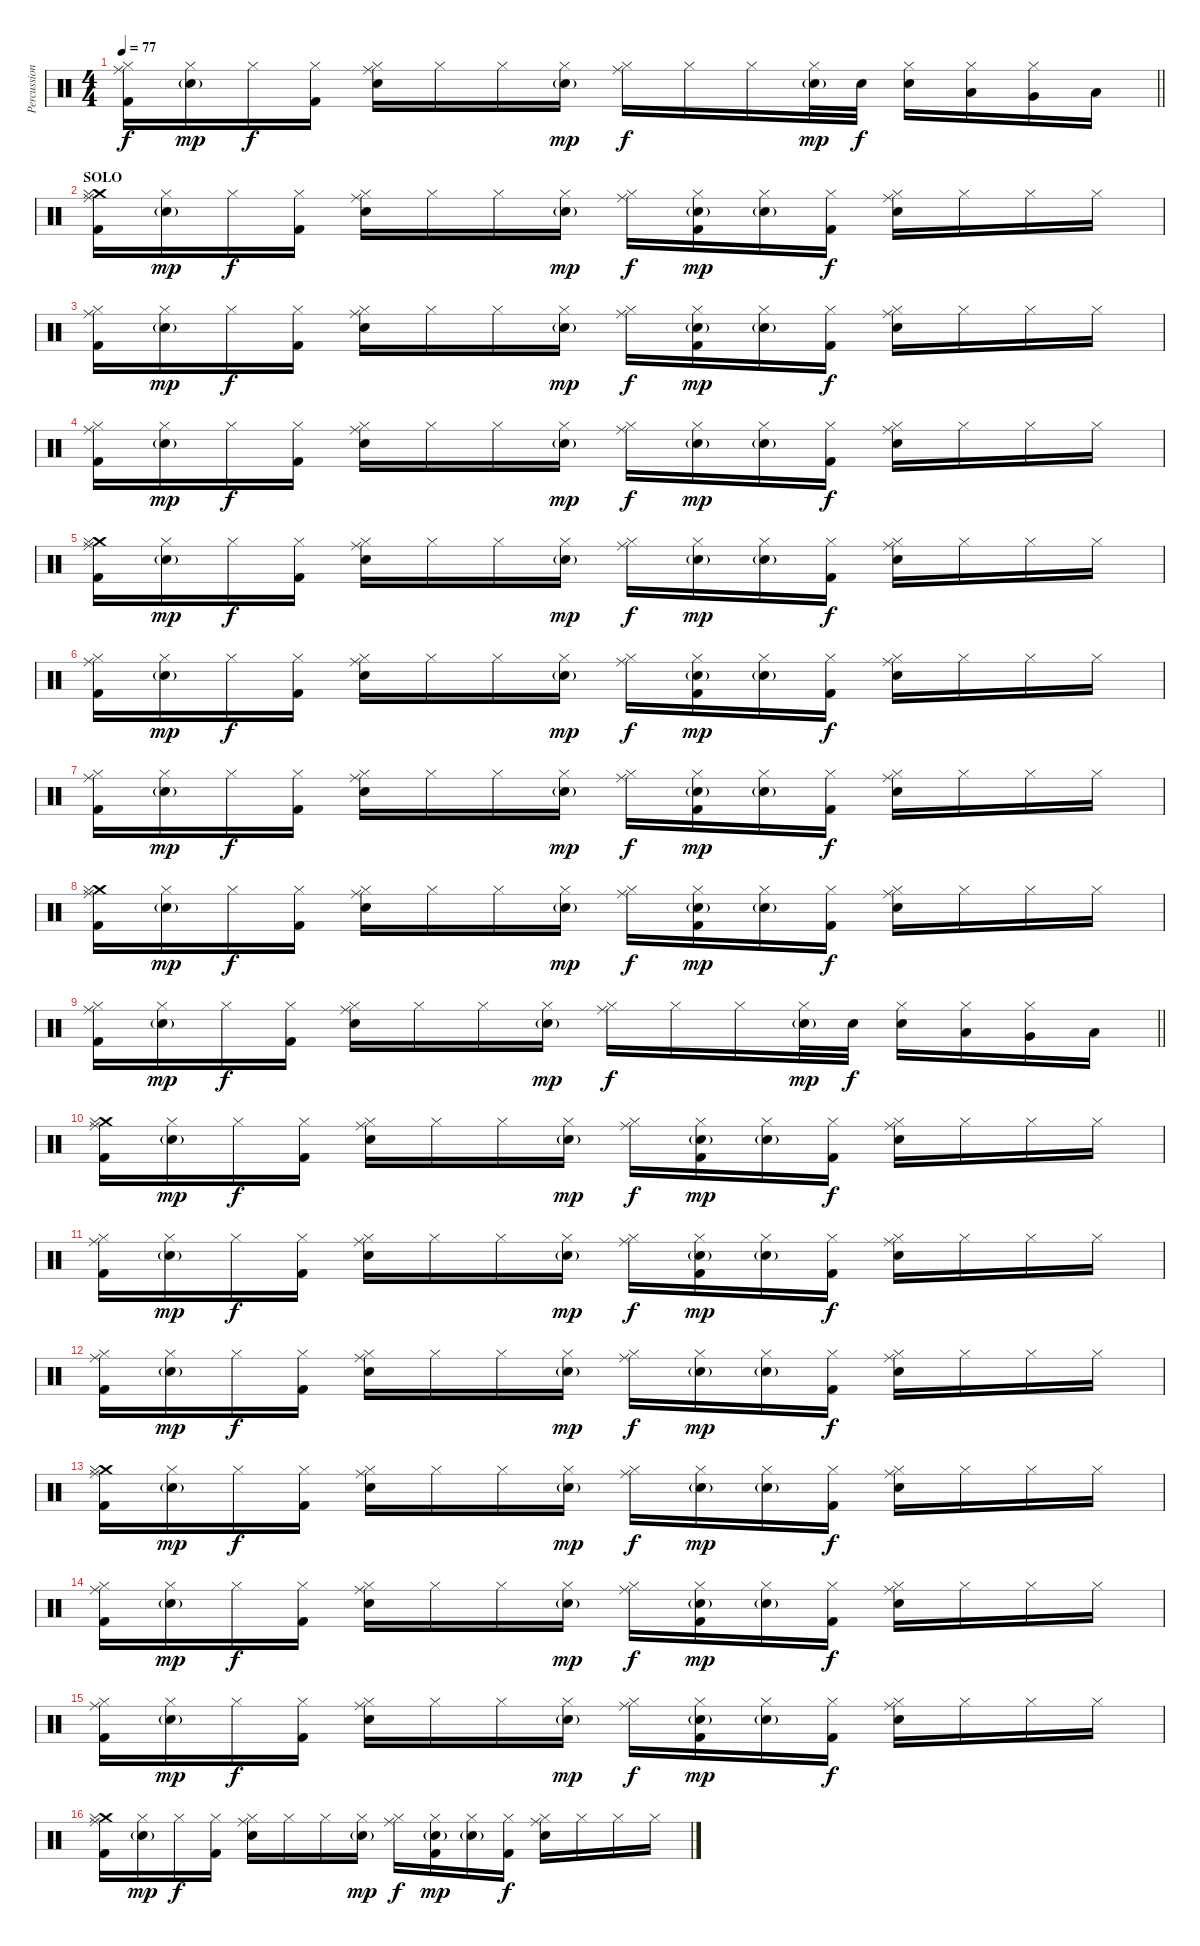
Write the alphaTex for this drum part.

\track ("Percussion" "Percussion") {instrument percussion}
\staff {score}
\articulation defaults
\ts (4 4)
\tempo 77
\clef neutral
\barLineRight lightlight
\ks c
("Hi-Hat (closed)" "Ride (middle)" "Kick (hit) 2").16{dy f} ("Hi-Hat (closed)" "Electric Snare (hit)"{g}).16{dy mp} "Hi-Hat (closed)".16{dy f} ("Hi-Hat (closed)" "Kick (hit) 2").16 ("Hi-Hat (closed)" "Ride (middle)" "Electric Snare (hit)").16 "Hi-Hat (closed)".16 "Hi-Hat (closed)".16 ("Hi-Hat (closed)" "Electric Snare (hit)"{g}).16{dy mp} ("Hi-Hat (closed)" "Ride (middle)").16{dy f} "Hi-Hat (closed)".16 "Hi-Hat (closed)".16 ("Hi-Hat (closed)" "Electric Snare (hit)"{g}).32{dy mp} "Electric Snare (hit)".32{dy f} ("Hi-Hat (closed)" "Electric Snare (hit)").16 ("Hi-Hat (closed)" "Low Tom (hit)").16 ("Hi-Hat (closed)" "Very Low Tom (hit)").16 "Low Floor Tom (hit)".16 |
\section ("" "SOLO")
("Crash medium (hit)" "Hi-Hat (closed)" "Ride (middle)" "Kick (hit) 2").16 ("Hi-Hat (closed)" "Electric Snare (hit)"{g}).16{dy mp} "Hi-Hat (closed)".16{dy f} ("Hi-Hat (closed)" "Kick (hit) 2").16 ("Hi-Hat (closed)" "Ride (middle)" "Electric Snare (hit)").16 "Hi-Hat (closed)".16 "Hi-Hat (closed)".16 ("Hi-Hat (closed)" "Electric Snare (hit)"{g}).16{dy mp} ("Hi-Hat (closed)" "Ride (middle)").16{dy f} ("Hi-Hat (closed)" "Electric Snare (hit)"{g} "Kick (hit) 2").16{dy mp} ("Hi-Hat (closed)" "Electric Snare (hit)"{g}).16 ("Hi-Hat (closed)" "Kick (hit) 2").16{dy f} ("Hi-Hat (closed)" "Ride (middle)" "Electric Snare (hit)").16 "Hi-Hat (closed)".16 "Hi-Hat (closed)".16 "Hi-Hat (closed)".16 |
("Hi-Hat (closed)" "Ride (middle)" "Kick (hit) 2").16 ("Hi-Hat (closed)" "Electric Snare (hit)"{g}).16{dy mp} "Hi-Hat (closed)".16{dy f} ("Hi-Hat (closed)" "Kick (hit) 2").16 ("Hi-Hat (closed)" "Ride (middle)" "Electric Snare (hit)").16 "Hi-Hat (closed)".16 "Hi-Hat (closed)".16 ("Hi-Hat (closed)" "Electric Snare (hit)"{g}).16{dy mp} ("Hi-Hat (closed)" "Ride (middle)").16{dy f} ("Hi-Hat (closed)" "Electric Snare (hit)"{g} "Kick (hit) 2").16{dy mp} ("Hi-Hat (closed)" "Electric Snare (hit)"{g}).16 ("Hi-Hat (closed)" "Kick (hit) 2").16{dy f} ("Hi-Hat (closed)" "Ride (middle)" "Electric Snare (hit)").16 "Hi-Hat (closed)".16 "Hi-Hat (closed)".16 "Hi-Hat (closed)".16 |
("Hi-Hat (closed)" "Ride (middle)" "Kick (hit) 2").16 ("Hi-Hat (closed)" "Electric Snare (hit)"{g}).16{dy mp} "Hi-Hat (closed)".16{dy f} ("Hi-Hat (closed)" "Kick (hit) 2").16 ("Hi-Hat (closed)" "Ride (middle)" "Electric Snare (hit)").16 "Hi-Hat (closed)".16 "Hi-Hat (closed)".16 ("Hi-Hat (closed)" "Electric Snare (hit)"{g}).16{dy mp} ("Hi-Hat (closed)" "Ride (middle)").16{dy f} ("Hi-Hat (closed)" "Electric Snare (hit)"{g}).16{dy mp} ("Hi-Hat (closed)" "Electric Snare (hit)"{g}).16 ("Hi-Hat (closed)" "Kick (hit) 2").16{dy f} ("Hi-Hat (closed)" "Ride (middle)" "Electric Snare (hit)").16 "Hi-Hat (closed)".16 "Hi-Hat (closed)".16 "Hi-Hat (closed)".16 |
("Crash medium (hit)" "Hi-Hat (closed)" "Ride (middle)" "Kick (hit) 2").16 ("Hi-Hat (closed)" "Electric Snare (hit)"{g}).16{dy mp} "Hi-Hat (closed)".16{dy f} ("Hi-Hat (closed)" "Kick (hit) 2").16 ("Hi-Hat (closed)" "Ride (middle)" "Electric Snare (hit)").16 "Hi-Hat (closed)".16 "Hi-Hat (closed)".16 ("Hi-Hat (closed)" "Electric Snare (hit)"{g}).16{dy mp} ("Hi-Hat (closed)" "Ride (middle)").16{dy f} ("Hi-Hat (closed)" "Electric Snare (hit)"{g}).16{dy mp} ("Hi-Hat (closed)" "Electric Snare (hit)"{g}).16 ("Hi-Hat (closed)" "Kick (hit) 2").16{dy f} ("Hi-Hat (closed)" "Ride (middle)" "Electric Snare (hit)").16 "Hi-Hat (closed)".16 "Hi-Hat (closed)".16 "Hi-Hat (closed)".16 |
("Hi-Hat (closed)" "Ride (middle)" "Kick (hit) 2").16 ("Hi-Hat (closed)" "Electric Snare (hit)"{g}).16{dy mp} "Hi-Hat (closed)".16{dy f} ("Hi-Hat (closed)" "Kick (hit) 2").16 ("Hi-Hat (closed)" "Ride (middle)" "Electric Snare (hit)").16 "Hi-Hat (closed)".16 "Hi-Hat (closed)".16 ("Hi-Hat (closed)" "Electric Snare (hit)"{g}).16{dy mp} ("Hi-Hat (closed)" "Ride (middle)").16{dy f} ("Hi-Hat (closed)" "Electric Snare (hit)"{g} "Kick (hit) 2").16{dy mp} ("Hi-Hat (closed)" "Electric Snare (hit)"{g}).16 ("Hi-Hat (closed)" "Kick (hit) 2").16{dy f} ("Hi-Hat (closed)" "Ride (middle)" "Electric Snare (hit)").16 "Hi-Hat (closed)".16 "Hi-Hat (closed)".16 "Hi-Hat (closed)".16 |
("Hi-Hat (closed)" "Ride (middle)" "Kick (hit) 2").16 ("Hi-Hat (closed)" "Electric Snare (hit)"{g}).16{dy mp} "Hi-Hat (closed)".16{dy f} ("Hi-Hat (closed)" "Kick (hit) 2").16 ("Hi-Hat (closed)" "Ride (middle)" "Electric Snare (hit)").16 "Hi-Hat (closed)".16 "Hi-Hat (closed)".16 ("Hi-Hat (closed)" "Electric Snare (hit)"{g}).16{dy mp} ("Hi-Hat (closed)" "Ride (middle)").16{dy f} ("Hi-Hat (closed)" "Electric Snare (hit)"{g} "Kick (hit) 2").16{dy mp} ("Hi-Hat (closed)" "Electric Snare (hit)"{g}).16 ("Hi-Hat (closed)" "Kick (hit) 2").16{dy f} ("Hi-Hat (closed)" "Ride (middle)" "Electric Snare (hit)").16 "Hi-Hat (closed)".16 "Hi-Hat (closed)".16 "Hi-Hat (closed)".16 |
("Crash medium (hit)" "Hi-Hat (closed)" "Ride (middle)" "Kick (hit) 2").16 ("Hi-Hat (closed)" "Electric Snare (hit)"{g}).16{dy mp} "Hi-Hat (closed)".16{dy f} ("Hi-Hat (closed)" "Kick (hit) 2").16 ("Hi-Hat (closed)" "Ride (middle)" "Electric Snare (hit)").16 "Hi-Hat (closed)".16 "Hi-Hat (closed)".16 ("Hi-Hat (closed)" "Electric Snare (hit)"{g}).16{dy mp} ("Hi-Hat (closed)" "Ride (middle)").16{dy f} ("Hi-Hat (closed)" "Electric Snare (hit)"{g} "Kick (hit) 2").16{dy mp} ("Hi-Hat (closed)" "Electric Snare (hit)"{g}).16 ("Hi-Hat (closed)" "Kick (hit) 2").16{dy f} ("Hi-Hat (closed)" "Ride (middle)" "Electric Snare (hit)").16 "Hi-Hat (closed)".16 "Hi-Hat (closed)".16 "Hi-Hat (closed)".16 |
\barLineRight lightlight
("Hi-Hat (closed)" "Ride (middle)" "Kick (hit) 2").16 ("Hi-Hat (closed)" "Electric Snare (hit)"{g}).16{dy mp} "Hi-Hat (closed)".16{dy f} ("Hi-Hat (closed)" "Kick (hit) 2").16 ("Hi-Hat (closed)" "Ride (middle)" "Electric Snare (hit)").16 "Hi-Hat (closed)".16 "Hi-Hat (closed)".16 ("Hi-Hat (closed)" "Electric Snare (hit)"{g}).16{dy mp} ("Hi-Hat (closed)" "Ride (middle)").16{dy f} "Hi-Hat (closed)".16 "Hi-Hat (closed)".16 ("Hi-Hat (closed)" "Electric Snare (hit)"{g}).32{dy mp} "Electric Snare (hit)".32{dy f} ("Hi-Hat (closed)" "Electric Snare (hit)").16 ("Hi-Hat (closed)" "Low Tom (hit)").16 ("Hi-Hat (closed)" "Very Low Tom (hit)").16 "Low Floor Tom (hit)".16 |
("Crash medium (hit)" "Hi-Hat (closed)" "Ride (middle)" "Kick (hit) 2").16 ("Hi-Hat (closed)" "Electric Snare (hit)"{g}).16{dy mp} "Hi-Hat (closed)".16{dy f} ("Hi-Hat (closed)" "Kick (hit) 2").16 ("Hi-Hat (closed)" "Ride (middle)" "Electric Snare (hit)").16 "Hi-Hat (closed)".16 "Hi-Hat (closed)".16 ("Hi-Hat (closed)" "Electric Snare (hit)"{g}).16{dy mp} ("Hi-Hat (closed)" "Ride (middle)").16{dy f} ("Hi-Hat (closed)" "Electric Snare (hit)"{g} "Kick (hit) 2").16{dy mp} ("Hi-Hat (closed)" "Electric Snare (hit)"{g}).16 ("Hi-Hat (closed)" "Kick (hit) 2").16{dy f} ("Hi-Hat (closed)" "Ride (middle)" "Electric Snare (hit)").16 "Hi-Hat (closed)".16 "Hi-Hat (closed)".16 "Hi-Hat (closed)".16 |
("Hi-Hat (closed)" "Ride (middle)" "Kick (hit) 2").16 ("Hi-Hat (closed)" "Electric Snare (hit)"{g}).16{dy mp} "Hi-Hat (closed)".16{dy f} ("Hi-Hat (closed)" "Kick (hit) 2").16 ("Hi-Hat (closed)" "Ride (middle)" "Electric Snare (hit)").16 "Hi-Hat (closed)".16 "Hi-Hat (closed)".16 ("Hi-Hat (closed)" "Electric Snare (hit)"{g}).16{dy mp} ("Hi-Hat (closed)" "Ride (middle)").16{dy f} ("Hi-Hat (closed)" "Electric Snare (hit)"{g} "Kick (hit) 2").16{dy mp} ("Hi-Hat (closed)" "Electric Snare (hit)"{g}).16 ("Hi-Hat (closed)" "Kick (hit) 2").16{dy f} ("Hi-Hat (closed)" "Ride (middle)" "Electric Snare (hit)").16 "Hi-Hat (closed)".16 "Hi-Hat (closed)".16 "Hi-Hat (closed)".16 |
("Hi-Hat (closed)" "Ride (middle)" "Kick (hit) 2").16 ("Hi-Hat (closed)" "Electric Snare (hit)"{g}).16{dy mp} "Hi-Hat (closed)".16{dy f} ("Hi-Hat (closed)" "Kick (hit) 2").16 ("Hi-Hat (closed)" "Ride (middle)" "Electric Snare (hit)").16 "Hi-Hat (closed)".16 "Hi-Hat (closed)".16 ("Hi-Hat (closed)" "Electric Snare (hit)"{g}).16{dy mp} ("Hi-Hat (closed)" "Ride (middle)").16{dy f} ("Hi-Hat (closed)" "Electric Snare (hit)"{g}).16{dy mp} ("Hi-Hat (closed)" "Electric Snare (hit)"{g}).16 ("Hi-Hat (closed)" "Kick (hit) 2").16{dy f} ("Hi-Hat (closed)" "Ride (middle)" "Electric Snare (hit)").16 "Hi-Hat (closed)".16 "Hi-Hat (closed)".16 "Hi-Hat (closed)".16 |
("Crash medium (hit)" "Hi-Hat (closed)" "Ride (middle)" "Kick (hit) 2").16 ("Hi-Hat (closed)" "Electric Snare (hit)"{g}).16{dy mp} "Hi-Hat (closed)".16{dy f} ("Hi-Hat (closed)" "Kick (hit) 2").16 ("Hi-Hat (closed)" "Ride (middle)" "Electric Snare (hit)").16 "Hi-Hat (closed)".16 "Hi-Hat (closed)".16 ("Hi-Hat (closed)" "Electric Snare (hit)"{g}).16{dy mp} ("Hi-Hat (closed)" "Ride (middle)").16{dy f} ("Hi-Hat (closed)" "Electric Snare (hit)"{g}).16{dy mp} ("Hi-Hat (closed)" "Electric Snare (hit)"{g}).16 ("Hi-Hat (closed)" "Kick (hit) 2").16{dy f} ("Hi-Hat (closed)" "Ride (middle)" "Electric Snare (hit)").16 "Hi-Hat (closed)".16 "Hi-Hat (closed)".16 "Hi-Hat (closed)".16 |
("Hi-Hat (closed)" "Ride (middle)" "Kick (hit) 2").16 ("Hi-Hat (closed)" "Electric Snare (hit)"{g}).16{dy mp} "Hi-Hat (closed)".16{dy f} ("Hi-Hat (closed)" "Kick (hit) 2").16 ("Hi-Hat (closed)" "Ride (middle)" "Electric Snare (hit)").16 "Hi-Hat (closed)".16 "Hi-Hat (closed)".16 ("Hi-Hat (closed)" "Electric Snare (hit)"{g}).16{dy mp} ("Hi-Hat (closed)" "Ride (middle)").16{dy f} ("Hi-Hat (closed)" "Electric Snare (hit)"{g} "Kick (hit) 2").16{dy mp} ("Hi-Hat (closed)" "Electric Snare (hit)"{g}).16 ("Hi-Hat (closed)" "Kick (hit) 2").16{dy f} ("Hi-Hat (closed)" "Ride (middle)" "Electric Snare (hit)").16 "Hi-Hat (closed)".16 "Hi-Hat (closed)".16 "Hi-Hat (closed)".16 |
("Hi-Hat (closed)" "Ride (middle)" "Kick (hit) 2").16 ("Hi-Hat (closed)" "Electric Snare (hit)"{g}).16{dy mp} "Hi-Hat (closed)".16{dy f} ("Hi-Hat (closed)" "Kick (hit) 2").16 ("Hi-Hat (closed)" "Ride (middle)" "Electric Snare (hit)").16 "Hi-Hat (closed)".16 "Hi-Hat (closed)".16 ("Hi-Hat (closed)" "Electric Snare (hit)"{g}).16{dy mp} ("Hi-Hat (closed)" "Ride (middle)").16{dy f} ("Hi-Hat (closed)" "Electric Snare (hit)"{g} "Kick (hit) 2").16{dy mp} ("Hi-Hat (closed)" "Electric Snare (hit)"{g}).16 ("Hi-Hat (closed)" "Kick (hit) 2").16{dy f} ("Hi-Hat (closed)" "Ride (middle)" "Electric Snare (hit)").16 "Hi-Hat (closed)".16 "Hi-Hat (closed)".16 "Hi-Hat (closed)".16 |
("Crash medium (hit)" "Hi-Hat (closed)" "Ride (middle)" "Kick (hit) 2").16 ("Hi-Hat (closed)" "Electric Snare (hit)"{g}).16{dy mp} "Hi-Hat (closed)".16{dy f} ("Hi-Hat (closed)" "Kick (hit) 2").16 ("Hi-Hat (closed)" "Ride (middle)" "Electric Snare (hit)").16 "Hi-Hat (closed)".16 "Hi-Hat (closed)".16 ("Hi-Hat (closed)" "Electric Snare (hit)"{g}).16{dy mp} ("Hi-Hat (closed)" "Ride (middle)").16{dy f} ("Hi-Hat (closed)" "Electric Snare (hit)"{g} "Kick (hit) 2").16{dy mp} ("Hi-Hat (closed)" "Electric Snare (hit)"{g}).16 ("Hi-Hat (closed)" "Kick (hit) 2").16{dy f} ("Hi-Hat (closed)" "Ride (middle)" "Electric Snare (hit)").16 "Hi-Hat (closed)".16 "Hi-Hat (closed)".16 "Hi-Hat (closed)".16
